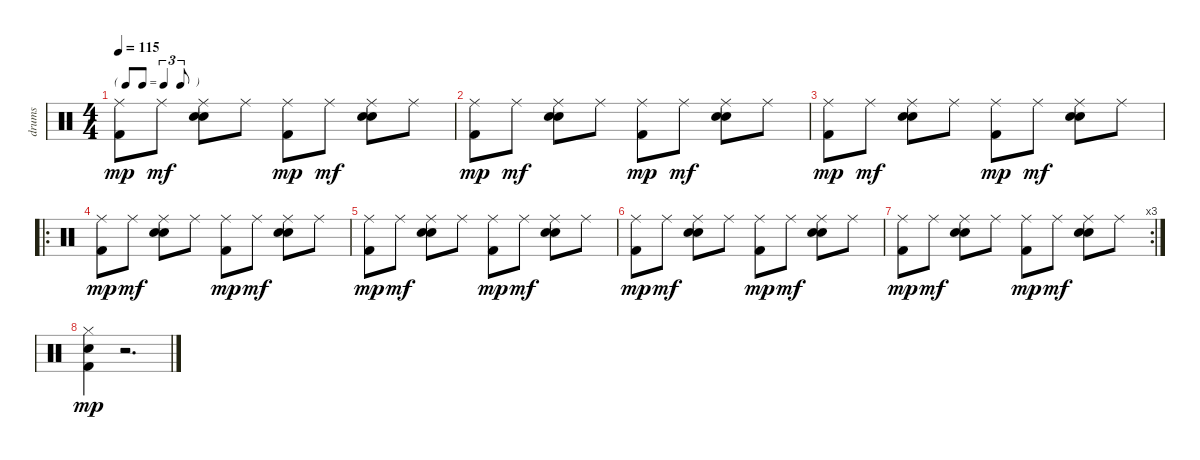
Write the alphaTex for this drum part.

\track ("drums" "drums") {instrument percussion}
\staff {score}
\articulation defaults
\ts (4 4)
\tf triplet8th
\tempo 115
\clef neutral
\ks c
("Ride (middle)" "Kick (hit) 2").8{dy mp} "Ride (middle)".8{dy mf} ("Ride (middle)" "Snare (hit) 2" "Hand Clap (hit)").8 "Ride (middle)".8 ("Ride (middle)" "Kick (hit) 2").8{dy mp} "Ride (middle)".8{dy mf} ("Ride (middle)" "Snare (hit) 2" "Hand Clap (hit)").8 "Ride (middle)".8 |
("Ride (middle)" "Kick (hit) 2").8{dy mp} "Ride (middle)".8{dy mf} ("Ride (middle)" "Snare (hit) 2" "Hand Clap (hit)").8 "Ride (middle)".8 ("Ride (middle)" "Kick (hit) 2").8{dy mp} "Ride (middle)".8{dy mf} ("Ride (middle)" "Snare (hit) 2" "Hand Clap (hit)").8 "Ride (middle)".8 |
("Ride (middle)" "Kick (hit) 2").8{dy mp} "Ride (middle)".8{dy mf} ("Ride (middle)" "Snare (hit) 2" "Hand Clap (hit)").8 "Ride (middle)".8 ("Ride (middle)" "Kick (hit) 2").8{dy mp} "Ride (middle)".8{dy mf} ("Ride (middle)" "Snare (hit) 2" "Hand Clap (hit)").8 "Ride (middle)".8 |
\ro
("Ride (middle)" "Kick (hit) 2").8{dy mp} "Ride (middle)".8{dy mf} ("Ride (middle)" "Snare (hit) 2" "Hand Clap (hit)").8 "Ride (middle)".8 ("Ride (middle)" "Kick (hit) 2").8{dy mp} "Ride (middle)".8{dy mf} ("Ride (middle)" "Snare (hit) 2" "Hand Clap (hit)").8 "Ride (middle)".8 |
("Ride (middle)" "Kick (hit) 2").8{dy mp} "Ride (middle)".8{dy mf} ("Ride (middle)" "Snare (hit) 2" "Hand Clap (hit)").8 "Ride (middle)".8 ("Ride (middle)" "Kick (hit) 2").8{dy mp} "Ride (middle)".8{dy mf} ("Ride (middle)" "Snare (hit) 2" "Hand Clap (hit)").8 "Ride (middle)".8 |
("Ride (middle)" "Kick (hit) 2").8{dy mp} "Ride (middle)".8{dy mf} ("Ride (middle)" "Snare (hit) 2" "Hand Clap (hit)").8 "Ride (middle)".8 ("Ride (middle)" "Kick (hit) 2").8{dy mp} "Ride (middle)".8{dy mf} ("Ride (middle)" "Snare (hit) 2" "Hand Clap (hit)").8 "Ride (middle)".8 |
\rc 3
("Ride (middle)" "Kick (hit) 2").8{dy mp} "Ride (middle)".8{dy mf} ("Ride (middle)" "Snare (hit) 2" "Hand Clap (hit)").8 "Ride (middle)".8 ("Ride (middle)" "Kick (hit) 2").8{dy mp} "Ride (middle)".8{dy mf} ("Ride (middle)" "Snare (hit) 2" "Hand Clap (hit)").8 "Ride (middle)".8 |
("Hi-Hat (closed)" "Snare (hit) 2" "Kick (hit) 2").4{dy mp} r.2{d}
